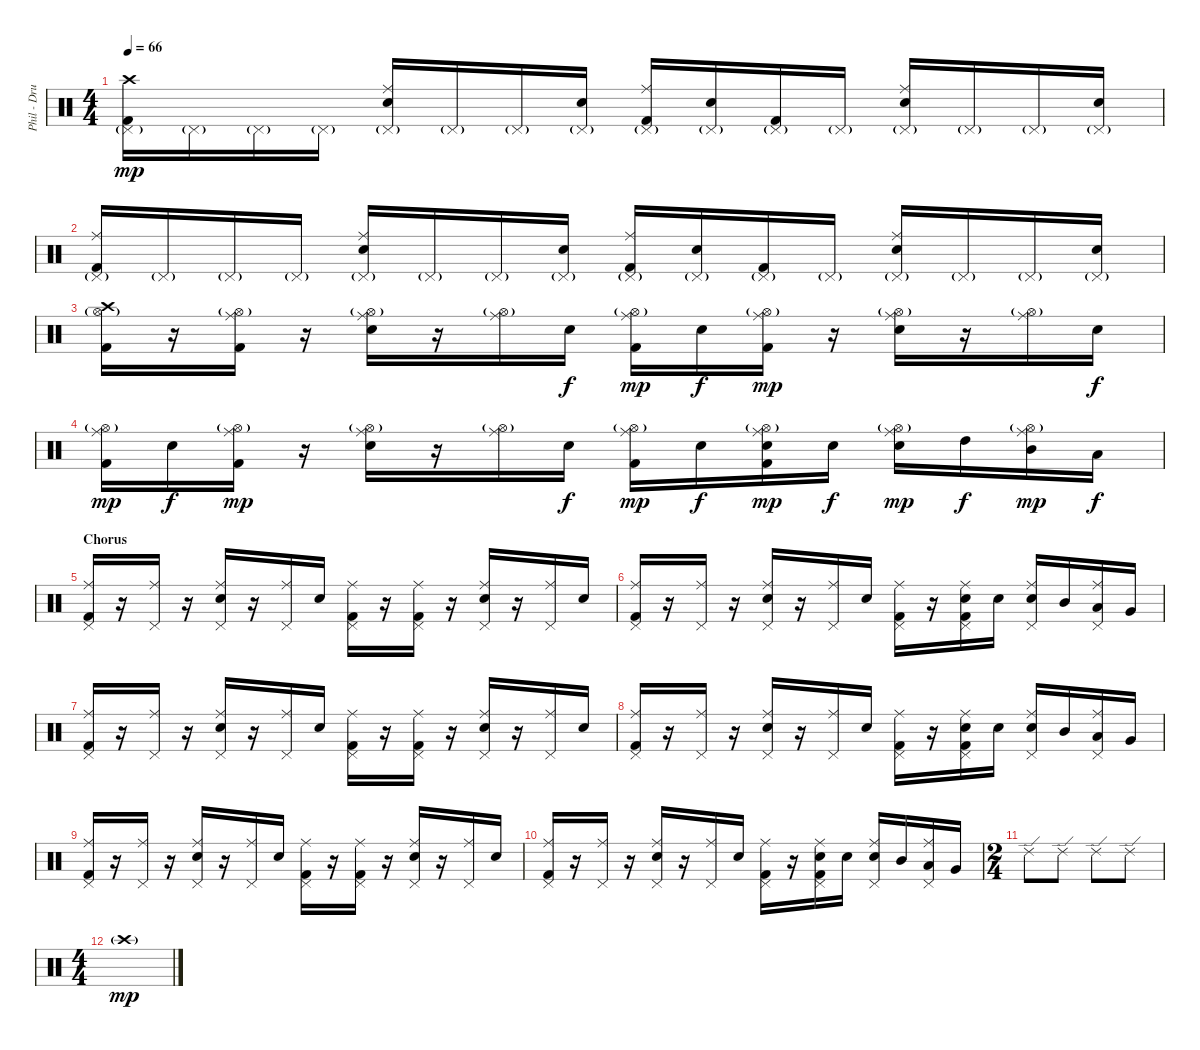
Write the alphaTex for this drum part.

\track ("Phil - Drums" "Phil - Dru") {instrument percussion}
\staff {score}
\articulation defaults
\ts (4 4)
\tempo 66
\clef neutral
\ks c
("Crash high (hit)" "Kick (hit) 2" "Pedal Hi-Hat (hit)"{g}).16{dy mp} "Pedal Hi-Hat (hit)"{g}.16 "Pedal Hi-Hat (hit)"{g}.16 "Pedal Hi-Hat (hit)"{g}.16 ("Ride (middle)" "Electric Snare (hit)" "Pedal Hi-Hat (hit)"{g}).16 "Pedal Hi-Hat (hit)"{g}.16 "Pedal Hi-Hat (hit)"{g}.16 ("Electric Snare (hit)" "Pedal Hi-Hat (hit)"{g}).16 ("Ride (middle)" "Kick (hit) 2" "Pedal Hi-Hat (hit)"{g}).16 ("Electric Snare (hit)" "Pedal Hi-Hat (hit)"{g}).16 ("Kick (hit) 2" "Pedal Hi-Hat (hit)"{g}).16 "Pedal Hi-Hat (hit)"{g}.16 ("Ride (middle)" "Electric Snare (hit)" "Pedal Hi-Hat (hit)"{g}).16 "Pedal Hi-Hat (hit)"{g}.16 "Pedal Hi-Hat (hit)"{g}.16 ("Electric Snare (hit)" "Pedal Hi-Hat (hit)"{g}).16 |
("Ride (middle)" "Kick (hit) 2" "Pedal Hi-Hat (hit)"{g}).16 "Pedal Hi-Hat (hit)"{g}.16 "Pedal Hi-Hat (hit)"{g}.16 "Pedal Hi-Hat (hit)"{g}.16 ("Ride (middle)" "Electric Snare (hit)" "Pedal Hi-Hat (hit)"{g}).16 "Pedal Hi-Hat (hit)"{g}.16 "Pedal Hi-Hat (hit)"{g}.16 ("Electric Snare (hit)" "Pedal Hi-Hat (hit)"{g}).16 ("Ride (middle)" "Kick (hit) 2" "Pedal Hi-Hat (hit)"{g}).16 ("Electric Snare (hit)" "Pedal Hi-Hat (hit)"{g}).16 ("Kick (hit) 2" "Pedal Hi-Hat (hit)"{g}).16 "Pedal Hi-Hat (hit)"{g}.16 ("Ride (middle)" "Electric Snare (hit)" "Pedal Hi-Hat (hit)"{g}).16 "Pedal Hi-Hat (hit)"{g}.16 "Pedal Hi-Hat (hit)"{g}.16 ("Electric Snare (hit)" "Pedal Hi-Hat (hit)"{g}).16 |
("Crash high (hit)" "Kick (hit) 2" "Hi-Hat (open)"{g}).16 r.16 ("Ride (middle)" "Kick (hit) 2" "Hi-Hat (open)"{g}).16 r.16 ("Ride (middle)" "Electric Snare (hit)" "Hi-Hat (open)"{g}).16 r.16 ("Ride (middle)" "Hi-Hat (open)"{g}).16 "Electric Snare (hit)".16{dy f} ("Ride (middle)" "Kick (hit) 2" "Hi-Hat (open)"{g}).16{dy mp} "Electric Snare (hit)".16{dy f} ("Ride (middle)" "Kick (hit) 2" "Hi-Hat (open)"{g}).16{dy mp} r.16 ("Ride (middle)" "Electric Snare (hit)" "Hi-Hat (open)"{g}).16 r.16 ("Ride (middle)" "Hi-Hat (open)"{g}).16 "Electric Snare (hit)".16{dy f} |
("Ride (middle)" "Kick (hit) 2" "Hi-Hat (open)"{g}).16{dy mp} "Electric Snare (hit)".16{dy f} ("Ride (middle)" "Kick (hit) 2" "Hi-Hat (open)"{g}).16{dy mp} r.16 ("Ride (middle)" "Electric Snare (hit)" "Hi-Hat (open)"{g}).16 r.16 ("Ride (middle)" "Hi-Hat (open)"{g}).16 "Electric Snare (hit)".16{dy f} ("Ride (middle)" "Kick (hit) 2" "Hi-Hat (open)"{g}).16{dy mp} "Electric Snare (hit)".16{dy f} ("Ride (middle)" "Electric Snare (hit)" "Kick (hit) 2" "Hi-Hat (open)"{g}).16{dy mp} "Electric Snare (hit)".16{dy f} ("Ride (middle)" "Electric Snare (hit)" "Hi-Hat (open)"{g}).16{dy mp} "High Tom (hit)".16{dy f} ("Ride (middle)" "Mid Tom (hit)" "Hi-Hat (open)"{g}).16{dy mp} "Low Tom (hit)".16{dy f} |
\section ("" "Chorus")
("Ride (middle)" "Kick (hit) 2" "Pedal Hi-Hat (hit)").16 r.16 ("Ride (middle)" "Pedal Hi-Hat (hit)").16 r.16 ("Ride (middle)" "Electric Snare (hit)" "Pedal Hi-Hat (hit)").16 r.16 ("Ride (middle)" "Pedal Hi-Hat (hit)").16 "Electric Snare (hit)".16 ("Ride (middle)" "Kick (hit) 2" "Pedal Hi-Hat (hit)").16 r.16 ("Ride (middle)" "Kick (hit) 2" "Pedal Hi-Hat (hit)").16 r.16 ("Ride (middle)" "Electric Snare (hit)" "Pedal Hi-Hat (hit)").16 r.16 ("Ride (middle)" "Pedal Hi-Hat (hit)").16 "Electric Snare (hit)".16 |
("Ride (middle)" "Kick (hit) 2" "Pedal Hi-Hat (hit)").16 r.16 ("Ride (middle)" "Pedal Hi-Hat (hit)").16 r.16 ("Ride (middle)" "Electric Snare (hit)" "Pedal Hi-Hat (hit)").16 r.16 ("Ride (middle)" "Pedal Hi-Hat (hit)").16 "Electric Snare (hit)".16 ("Ride (middle)" "Kick (hit) 2" "Pedal Hi-Hat (hit)").16 r.16 ("Ride (middle)" "Electric Snare (hit)" "Kick (hit) 2" "Pedal Hi-Hat (hit)").16 "Electric Snare (hit)".16 ("Ride (middle)" "Electric Snare (hit)" "Pedal Hi-Hat (hit)").16 "Mid Tom (hit)".16 ("Ride (middle)" "Low Tom (hit)" "Pedal Hi-Hat (hit)").16 "Very Low Tom (hit)".16 |
("Ride (middle)" "Kick (hit) 2" "Pedal Hi-Hat (hit)").16 r.16 ("Ride (middle)" "Pedal Hi-Hat (hit)").16 r.16 ("Ride (middle)" "Electric Snare (hit)" "Pedal Hi-Hat (hit)").16 r.16 ("Ride (middle)" "Pedal Hi-Hat (hit)").16 "Electric Snare (hit)".16 ("Ride (middle)" "Kick (hit) 2" "Pedal Hi-Hat (hit)").16 r.16 ("Ride (middle)" "Kick (hit) 2" "Pedal Hi-Hat (hit)").16 r.16 ("Ride (middle)" "Electric Snare (hit)" "Pedal Hi-Hat (hit)").16 r.16 ("Ride (middle)" "Pedal Hi-Hat (hit)").16 "Electric Snare (hit)".16 |
("Ride (middle)" "Kick (hit) 2" "Pedal Hi-Hat (hit)").16 r.16 ("Ride (middle)" "Pedal Hi-Hat (hit)").16 r.16 ("Ride (middle)" "Electric Snare (hit)" "Pedal Hi-Hat (hit)").16 r.16 ("Ride (middle)" "Pedal Hi-Hat (hit)").16 "Electric Snare (hit)".16 ("Ride (middle)" "Kick (hit) 2" "Pedal Hi-Hat (hit)").16 r.16 ("Ride (middle)" "Electric Snare (hit)" "Kick (hit) 2" "Pedal Hi-Hat (hit)").16 "Electric Snare (hit)".16 ("Ride (middle)" "Electric Snare (hit)" "Pedal Hi-Hat (hit)").16 "Mid Tom (hit)".16 ("Ride (middle)" "Low Tom (hit)" "Pedal Hi-Hat (hit)").16 "Very Low Tom (hit)".16 |
("Ride (middle)" "Kick (hit) 2" "Pedal Hi-Hat (hit)").16 r.16 ("Ride (middle)" "Pedal Hi-Hat (hit)").16 r.16 ("Ride (middle)" "Electric Snare (hit)" "Pedal Hi-Hat (hit)").16 r.16 ("Ride (middle)" "Pedal Hi-Hat (hit)").16 "Electric Snare (hit)".16 ("Ride (middle)" "Kick (hit) 2" "Pedal Hi-Hat (hit)").16 r.16 ("Ride (middle)" "Kick (hit) 2" "Pedal Hi-Hat (hit)").16 r.16 ("Ride (middle)" "Electric Snare (hit)" "Pedal Hi-Hat (hit)").16 r.16 ("Ride (middle)" "Pedal Hi-Hat (hit)").16 "Electric Snare (hit)".16 |
("Ride (middle)" "Kick (hit) 2" "Pedal Hi-Hat (hit)").16 r.16 ("Ride (middle)" "Pedal Hi-Hat (hit)").16 r.16 ("Ride (middle)" "Electric Snare (hit)" "Pedal Hi-Hat (hit)").16 r.16 ("Ride (middle)" "Pedal Hi-Hat (hit)").16 "Electric Snare (hit)".16 ("Ride (middle)" "Kick (hit) 2" "Pedal Hi-Hat (hit)").16 r.16 ("Ride (middle)" "Electric Snare (hit)" "Kick (hit) 2" "Pedal Hi-Hat (hit)").16 "Electric Snare (hit)".16 ("Ride (middle)" "Electric Snare (hit)" "Pedal Hi-Hat (hit)").16 "Mid Tom (hit)".16 ("Ride (middle)" "Low Tom (hit)" "Pedal Hi-Hat (hit)").16 "Very Low Tom (hit)".16 |
\ts (2 4)
"Ride (edge) 2".8 "Ride (edge) 2".8 "Ride (edge) 2".8 "Ride (edge) 2".8 |
\ts (4 4)
"Crash high (hit)"{g}.1{dy mp}
